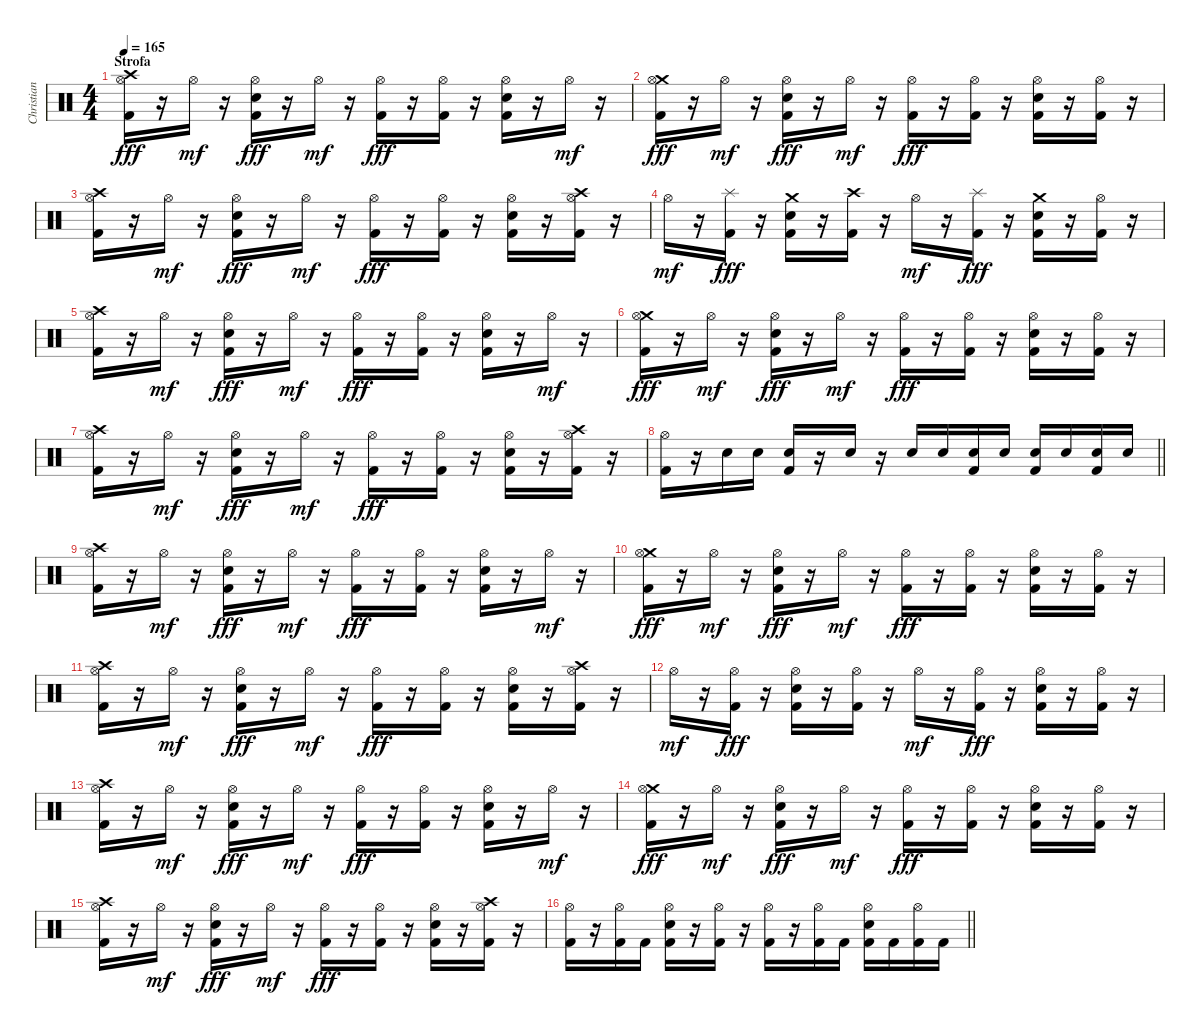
\track ("Christian Coma Mora (CC)" "Christian ") {instrument percussion}
\staff {score}
\articulation defaults
\ts (4 4)
\section ("" "Strofa")
\tempo 165
\clef neutral
\ks c
("Crash high (hit)" "Hi-Hat (open)" "Kick (hit) 2").16{dy fff} r.16 "Hi-Hat (open)".16{dy mf} r.16 ("Hi-Hat (open)" "Snare (hit) 2" "Kick (hit) 2").16{dy fff} r.16 "Hi-Hat (open)".16{dy mf} r.16 ("Hi-Hat (open)" "Kick (hit) 2").16{dy fff} r.16 ("Hi-Hat (open)" "Kick (hit) 2").16 r.16 ("Hi-Hat (open)" "Snare (hit) 2" "Kick (hit) 2").16 r.16 "Hi-Hat (open)".16{dy mf} r.16 |
("Crash medium (hit)" "Hi-Hat (open)" "Kick (hit) 2").16{dy fff} r.16 "Hi-Hat (open)".16{dy mf} r.16 ("Hi-Hat (open)" "Snare (hit) 2" "Kick (hit) 2").16{dy fff} r.16 "Hi-Hat (open)".16{dy mf} r.16 ("Hi-Hat (open)" "Kick (hit) 2").16{dy fff} r.16 ("Hi-Hat (open)" "Kick (hit) 2").16 r.16 ("Hi-Hat (open)" "Snare (hit) 2" "Kick (hit) 2").16 r.16 ("Hi-Hat (open)" "Kick (hit) 2").16 r.16 |
("Crash high (hit)" "Hi-Hat (open)" "Kick (hit) 2").16 r.16 "Hi-Hat (open)".16{dy mf} r.16 ("Hi-Hat (open)" "Snare (hit) 2" "Kick (hit) 2").16{dy fff} r.16 "Hi-Hat (open)".16{dy mf} r.16 ("Hi-Hat (open)" "Kick (hit) 2").16{dy fff} r.16 ("Hi-Hat (open)" "Kick (hit) 2").16 r.16 ("Hi-Hat (open)" "Snare (hit) 2" "Kick (hit) 2").16 r.16 ("Crash high (hit)" "Hi-Hat (open)" "Kick (hit) 2").16 r.16 |
"Hi-Hat (open)".16{dy mf} r.16 ("Splash (hit)" "Kick (hit) 2").16{dy fff} r.16 ("Crash medium (hit)" "Snare (hit) 2" "Kick (hit) 2").16 r.16 ("Crash high (hit)" "Kick (hit) 2").16 r.16 "Hi-Hat (open)".16{dy mf} r.16 ("Splash (hit)" "Kick (hit) 2").16{dy fff} r.16 ("Crash medium (hit)" "Snare (hit) 2" "Kick (hit) 2").16 r.16 ("Hi-Hat (open)" "Kick (hit) 2").16 r.16 |
("Crash high (hit)" "Hi-Hat (open)" "Kick (hit) 2").16 r.16 "Hi-Hat (open)".16{dy mf} r.16 ("Hi-Hat (open)" "Snare (hit) 2" "Kick (hit) 2").16{dy fff} r.16 "Hi-Hat (open)".16{dy mf} r.16 ("Hi-Hat (open)" "Kick (hit) 2").16{dy fff} r.16 ("Hi-Hat (open)" "Kick (hit) 2").16 r.16 ("Hi-Hat (open)" "Snare (hit) 2" "Kick (hit) 2").16 r.16 "Hi-Hat (open)".16{dy mf} r.16 |
("Crash medium (hit)" "Hi-Hat (open)" "Kick (hit) 2").16{dy fff} r.16 "Hi-Hat (open)".16{dy mf} r.16 ("Hi-Hat (open)" "Snare (hit) 2" "Kick (hit) 2").16{dy fff} r.16 "Hi-Hat (open)".16{dy mf} r.16 ("Hi-Hat (open)" "Kick (hit) 2").16{dy fff} r.16 ("Hi-Hat (open)" "Kick (hit) 2").16 r.16 ("Hi-Hat (open)" "Snare (hit) 2" "Kick (hit) 2").16 r.16 ("Hi-Hat (open)" "Kick (hit) 2").16 r.16 |
("Crash high (hit)" "Hi-Hat (open)" "Kick (hit) 2").16 r.16 "Hi-Hat (open)".16{dy mf} r.16 ("Hi-Hat (open)" "Snare (hit) 2" "Kick (hit) 2").16{dy fff} r.16 "Hi-Hat (open)".16{dy mf} r.16 ("Hi-Hat (open)" "Kick (hit) 2").16{dy fff} r.16 ("Hi-Hat (open)" "Kick (hit) 2").16 r.16 ("Hi-Hat (open)" "Snare (hit) 2" "Kick (hit) 2").16 r.16 ("Crash high (hit)" "Hi-Hat (open)" "Kick (hit) 2").16 r.16 |
\barLineRight lightlight
("Hi-Hat (open)" "Kick (hit) 2").16 r.16 "Snare (hit) 2".16 "Snare (hit) 2".16 ("Snare (hit) 2" "Kick (hit) 2").16 r.16 "Snare (hit) 2".16 r.16 "Snare (hit) 2".16 "Snare (hit) 2".16 ("Snare (hit) 2" "Kick (hit) 2").16 "Snare (hit) 2".16 ("Snare (hit) 2" "Kick (hit) 2").16 "Snare (hit) 2".16 ("Snare (hit) 2" "Kick (hit) 2").16 "Snare (hit) 2".16 |
("Crash high (hit)" "Hi-Hat (open)" "Kick (hit) 2").16 r.16 "Hi-Hat (open)".16{dy mf} r.16 ("Hi-Hat (open)" "Snare (hit) 2" "Kick (hit) 2").16{dy fff} r.16 "Hi-Hat (open)".16{dy mf} r.16 ("Hi-Hat (open)" "Kick (hit) 2").16{dy fff} r.16 ("Hi-Hat (open)" "Kick (hit) 2").16 r.16 ("Hi-Hat (open)" "Snare (hit) 2" "Kick (hit) 2").16 r.16 "Hi-Hat (open)".16{dy mf} r.16 |
("Crash medium (hit)" "Hi-Hat (open)" "Kick (hit) 2").16{dy fff} r.16 "Hi-Hat (open)".16{dy mf} r.16 ("Hi-Hat (open)" "Snare (hit) 2" "Kick (hit) 2").16{dy fff} r.16 "Hi-Hat (open)".16{dy mf} r.16 ("Hi-Hat (open)" "Kick (hit) 2").16{dy fff} r.16 ("Hi-Hat (open)" "Kick (hit) 2").16 r.16 ("Hi-Hat (open)" "Snare (hit) 2" "Kick (hit) 2").16 r.16 ("Hi-Hat (open)" "Kick (hit) 2").16 r.16 |
("Crash high (hit)" "Hi-Hat (open)" "Kick (hit) 2").16 r.16 "Hi-Hat (open)".16{dy mf} r.16 ("Hi-Hat (open)" "Snare (hit) 2" "Kick (hit) 2").16{dy fff} r.16 "Hi-Hat (open)".16{dy mf} r.16 ("Hi-Hat (open)" "Kick (hit) 2").16{dy fff} r.16 ("Hi-Hat (open)" "Kick (hit) 2").16 r.16 ("Hi-Hat (open)" "Snare (hit) 2" "Kick (hit) 2").16 r.16 ("Crash high (hit)" "Hi-Hat (open)" "Kick (hit) 2").16 r.16 |
"Hi-Hat (open)".16{dy mf} r.16 ("Hi-Hat (open)" "Kick (hit) 2").16{dy fff} r.16 ("Hi-Hat (open)" "Snare (hit) 2" "Kick (hit) 2").16 r.16 ("Hi-Hat (open)" "Kick (hit) 2").16 r.16 "Hi-Hat (open)".16{dy mf} r.16 ("Hi-Hat (open)" "Kick (hit) 2").16{dy fff} r.16 ("Hi-Hat (open)" "Snare (hit) 2" "Kick (hit) 2").16 r.16 ("Hi-Hat (open)" "Kick (hit) 2").16 r.16 |
("Crash high (hit)" "Hi-Hat (open)" "Kick (hit) 2").16 r.16 "Hi-Hat (open)".16{dy mf} r.16 ("Hi-Hat (open)" "Snare (hit) 2" "Kick (hit) 2").16{dy fff} r.16 "Hi-Hat (open)".16{dy mf} r.16 ("Hi-Hat (open)" "Kick (hit) 2").16{dy fff} r.16 ("Hi-Hat (open)" "Kick (hit) 2").16 r.16 ("Hi-Hat (open)" "Snare (hit) 2" "Kick (hit) 2").16 r.16 "Hi-Hat (open)".16{dy mf} r.16 |
("Crash medium (hit)" "Hi-Hat (open)" "Kick (hit) 2").16{dy fff} r.16 "Hi-Hat (open)".16{dy mf} r.16 ("Hi-Hat (open)" "Snare (hit) 2" "Kick (hit) 2").16{dy fff} r.16 "Hi-Hat (open)".16{dy mf} r.16 ("Hi-Hat (open)" "Kick (hit) 2").16{dy fff} r.16 ("Hi-Hat (open)" "Kick (hit) 2").16 r.16 ("Hi-Hat (open)" "Snare (hit) 2" "Kick (hit) 2").16 r.16 ("Hi-Hat (open)" "Kick (hit) 2").16 r.16 |
("Crash high (hit)" "Hi-Hat (open)" "Kick (hit) 2").16 r.16 "Hi-Hat (open)".16{dy mf} r.16 ("Hi-Hat (open)" "Snare (hit) 2" "Kick (hit) 2").16{dy fff} r.16 "Hi-Hat (open)".16{dy mf} r.16 ("Hi-Hat (open)" "Kick (hit) 2").16{dy fff} r.16 ("Hi-Hat (open)" "Kick (hit) 2").16 r.16 ("Hi-Hat (open)" "Snare (hit) 2" "Kick (hit) 2").16 r.16 ("Crash high (hit)" "Hi-Hat (open)" "Kick (hit) 2").16 r.16 |
\barLineRight lightlight
("Hi-Hat (open)" "Kick (hit) 2").16 r.16 ("Hi-Hat (open)" "Kick (hit) 2").16 "Kick (hit) 2".16 ("Hi-Hat (open)" "Snare (hit) 2" "Kick (hit) 2").16 r.16 ("Hi-Hat (open)" "Kick (hit) 2").16 r.16 ("Hi-Hat (open)" "Kick (hit) 2").16 r.16 ("Hi-Hat (open)" "Kick (hit) 2").16 "Kick (hit) 2".16 ("Hi-Hat (open)" "Snare (hit) 2" "Kick (hit) 2").16 "Kick (hit) 2".16 ("Hi-Hat (open)" "Kick (hit) 2").16 "Kick (hit) 2".16
